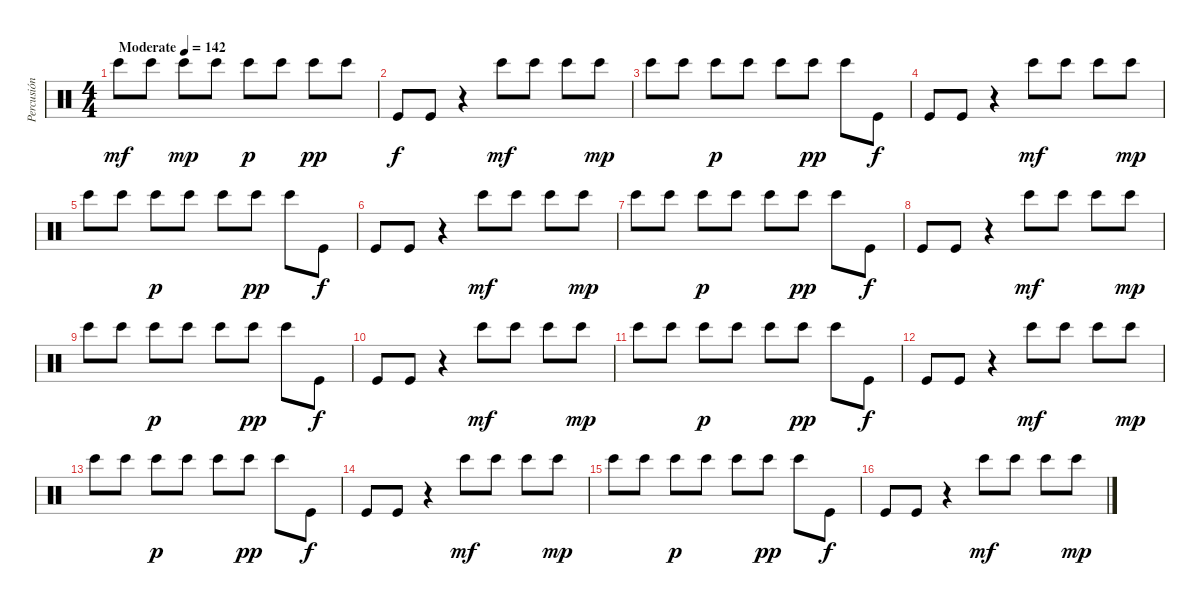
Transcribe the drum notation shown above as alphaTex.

\track ("Percusión" "Percusión") {instrument percussion}
\staff {score}
\articulation defaults
\ts (4 4)
\tempo (142 "Moderate")
\clef neutral
\ks c "Bongo High (hit)".8{dy mf balance 0} "Bongo High (hit)".8{balance 16} "Bongo High (hit)".8{dy mp balance 0} "Bongo High (hit)".8{balance 16} "Bongo High (hit)".8{dy p balance 0} "Bongo High (hit)".8{balance 16} "Bongo High (hit)".8{dy pp balance 0} "Bongo High (hit)".8{balance 16}
|
"Kick (hit)".8{dy f balance 8} "Kick (hit)".8 r.4 "Bongo High (hit)".8{dy mf balance 0} "Bongo High (hit)".8{balance 16} "Bongo High (hit)".8{balance 0} "Bongo High (hit)".8{dy mp balance 16} |
"Bongo High (hit)".8{balance 0} "Bongo High (hit)".8{balance 16} "Bongo High (hit)".8{dy p balance 0} "Bongo High (hit)".8{balance 16} "Bongo High (hit)".8{balance 0} "Bongo High (hit)".8{dy pp balance 16} "Bongo High (hit)".8{balance 0} "Kick (hit)".8{dy f balance 8} |
"Kick (hit)".8{balance 8} "Kick (hit)".8 r.4 "Bongo High (hit)".8{dy mf balance 0} "Bongo High (hit)".8{balance 16} "Bongo High (hit)".8{balance 0} "Bongo High (hit)".8{dy mp balance 16} |
"Bongo High (hit)".8{balance 0} "Bongo High (hit)".8{balance 16} "Bongo High (hit)".8{dy p balance 0} "Bongo High (hit)".8{balance 16} "Bongo High (hit)".8{balance 0} "Bongo High (hit)".8{dy pp balance 16} "Bongo High (hit)".8{balance 0} "Kick (hit)".8{dy f balance 8} |
"Kick (hit)".8{balance 8} "Kick (hit)".8 r.4 "Bongo High (hit)".8{dy mf balance 0} "Bongo High (hit)".8{balance 16} "Bongo High (hit)".8{balance 0} "Bongo High (hit)".8{dy mp balance 16} |
"Bongo High (hit)".8{balance 0} "Bongo High (hit)".8{balance 16} "Bongo High (hit)".8{dy p balance 0} "Bongo High (hit)".8{balance 16} "Bongo High (hit)".8{balance 0} "Bongo High (hit)".8{dy pp balance 16} "Bongo High (hit)".8{balance 0} "Kick (hit)".8{dy f balance 8} |
"Kick (hit)".8{balance 8} "Kick (hit)".8 r.4 "Bongo High (hit)".8{dy mf balance 0} "Bongo High (hit)".8{balance 16} "Bongo High (hit)".8{balance 0} "Bongo High (hit)".8{dy mp balance 16} |
"Bongo High (hit)".8{balance 0} "Bongo High (hit)".8{balance 16} "Bongo High (hit)".8{dy p balance 0} "Bongo High (hit)".8{balance 16} "Bongo High (hit)".8{balance 0} "Bongo High (hit)".8{dy pp balance 16} "Bongo High (hit)".8{balance 0} "Kick (hit)".8{dy f balance 8} |
"Kick (hit)".8{balance 8} "Kick (hit)".8 r.4 "Bongo High (hit)".8{dy mf balance 0} "Bongo High (hit)".8{balance 16} "Bongo High (hit)".8{balance 0} "Bongo High (hit)".8{dy mp balance 16} |
"Bongo High (hit)".8{balance 0} "Bongo High (hit)".8{balance 16} "Bongo High (hit)".8{dy p balance 0} "Bongo High (hit)".8{balance 16} "Bongo High (hit)".8{balance 0} "Bongo High (hit)".8{dy pp balance 16} "Bongo High (hit)".8{balance 0} "Kick (hit)".8{dy f balance 8} |
"Kick (hit)".8{balance 8} "Kick (hit)".8 r.4 "Bongo High (hit)".8{dy mf balance 0} "Bongo High (hit)".8{balance 16} "Bongo High (hit)".8{balance 0} "Bongo High (hit)".8{dy mp balance 16} |
"Bongo High (hit)".8{balance 0} "Bongo High (hit)".8{balance 16} "Bongo High (hit)".8{dy p balance 0} "Bongo High (hit)".8{balance 16} "Bongo High (hit)".8{balance 0} "Bongo High (hit)".8{dy pp balance 16} "Bongo High (hit)".8{balance 0} "Kick (hit)".8{dy f balance 8} |
"Kick (hit)".8{balance 8} "Kick (hit)".8 r.4 "Bongo High (hit)".8{dy mf balance 0} "Bongo High (hit)".8{balance 16} "Bongo High (hit)".8{balance 0} "Bongo High (hit)".8{dy mp balance 16} |
"Bongo High (hit)".8{balance 0} "Bongo High (hit)".8{balance 16} "Bongo High (hit)".8{dy p balance 0} "Bongo High (hit)".8{balance 16} "Bongo High (hit)".8{balance 0} "Bongo High (hit)".8{dy pp balance 16} "Bongo High (hit)".8{balance 0} "Kick (hit)".8{dy f balance 8} |
"Kick (hit)".8{balance 8} "Kick (hit)".8 r.4 "Bongo High (hit)".8{dy mf balance 0} "Bongo High (hit)".8{balance 16} "Bongo High (hit)".8{balance 0} "Bongo High (hit)".8{dy mp balance 16}
